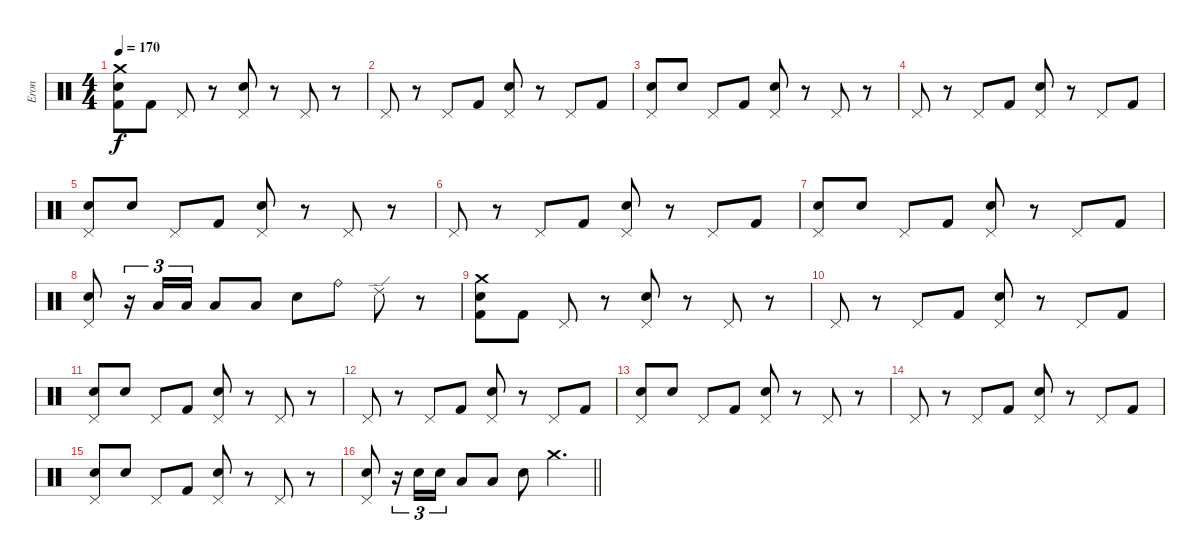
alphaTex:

\track ("Eron" "Eron") {instrument percussion}
\staff {score}
\articulation defaults
\ts (4 4)
\tempo 170
\clef neutral
\ks c
("Crash medium (hit)" "Snare (hit) 2" "Kick (hit) 2").8{dy f} "Kick (hit) 2".8 "Pedal Hi-Hat (hit)".8 r.8 ("Pedal Hi-Hat (hit)" "Snare (hit) 2").8 r.8 "Pedal Hi-Hat (hit)".8 r.8 |
"Pedal Hi-Hat (hit)".8 r.8 "Pedal Hi-Hat (hit)".8 "Kick (hit) 2".8 ("Pedal Hi-Hat (hit)" "Snare (hit) 2").8 r.8 "Pedal Hi-Hat (hit)".8 "Kick (hit) 2".8 |
("Pedal Hi-Hat (hit)" "Snare (hit) 2").8 "Snare (hit) 2".8 "Pedal Hi-Hat (hit)".8 "Kick (hit) 2".8 ("Pedal Hi-Hat (hit)" "Snare (hit) 2").8 r.8 "Pedal Hi-Hat (hit)".8 r.8 |
"Pedal Hi-Hat (hit)".8 r.8 "Pedal Hi-Hat (hit)".8 "Kick (hit) 2".8 ("Pedal Hi-Hat (hit)" "Snare (hit) 2").8 r.8 "Pedal Hi-Hat (hit)".8 "Kick (hit) 2".8 |
("Pedal Hi-Hat (hit)" "Snare (hit) 2").8 "Snare (hit) 2".8 "Pedal Hi-Hat (hit)".8 "Kick (hit) 2".8 ("Pedal Hi-Hat (hit)" "Snare (hit) 2").8 r.8 "Pedal Hi-Hat (hit)".8 r.8 |
"Pedal Hi-Hat (hit)".8 r.8 "Pedal Hi-Hat (hit)".8 "Kick (hit) 2".8 ("Pedal Hi-Hat (hit)" "Snare (hit) 2").8 r.8 "Pedal Hi-Hat (hit)".8 "Kick (hit) 2".8 |
("Pedal Hi-Hat (hit)" "Snare (hit) 2").8 "Snare (hit) 2".8 "Pedal Hi-Hat (hit)".8 "Kick (hit) 2".8 ("Pedal Hi-Hat (hit)" "Snare (hit) 2").8 r.8 "Pedal Hi-Hat (hit)".8 "Kick (hit) 2".8 |
("Pedal Hi-Hat (hit)" "Snare (hit) 2").8 r.16{tu (3 2)} "Low Tom (hit)".16{tu (3 2)} "Low Tom (hit)".16{tu (3 2)} "Low Floor Tom (hit)".8 "Low Floor Tom (hit)".8 "Snare (hit) 2".8 "Ride (bell)".8 "Ride (edge) 2".8 r.8 |
("Crash medium (hit)" "Snare (hit) 2" "Kick (hit) 2").8 "Kick (hit) 2".8 "Pedal Hi-Hat (hit)".8 r.8 ("Pedal Hi-Hat (hit)" "Snare (hit) 2").8 r.8 "Pedal Hi-Hat (hit)".8 r.8 |
"Pedal Hi-Hat (hit)".8 r.8 "Pedal Hi-Hat (hit)".8 "Kick (hit) 2".8 ("Pedal Hi-Hat (hit)" "Snare (hit) 2").8 r.8 "Pedal Hi-Hat (hit)".8 "Kick (hit) 2".8 |
("Pedal Hi-Hat (hit)" "Snare (hit) 2").8 "Snare (hit) 2".8 "Pedal Hi-Hat (hit)".8 "Kick (hit) 2".8 ("Pedal Hi-Hat (hit)" "Snare (hit) 2").8 r.8 "Pedal Hi-Hat (hit)".8 r.8 |
"Pedal Hi-Hat (hit)".8 r.8 "Pedal Hi-Hat (hit)".8 "Kick (hit) 2".8 ("Pedal Hi-Hat (hit)" "Snare (hit) 2").8 r.8 "Pedal Hi-Hat (hit)".8 "Kick (hit) 2".8 |
("Pedal Hi-Hat (hit)" "Snare (hit) 2").8 "Snare (hit) 2".8 "Pedal Hi-Hat (hit)".8 "Kick (hit) 2".8 ("Pedal Hi-Hat (hit)" "Snare (hit) 2").8 r.8 "Pedal Hi-Hat (hit)".8 r.8 |
"Pedal Hi-Hat (hit)".8 r.8 "Pedal Hi-Hat (hit)".8 "Kick (hit) 2".8 ("Pedal Hi-Hat (hit)" "Snare (hit) 2").8 r.8 "Pedal Hi-Hat (hit)".8 "Kick (hit) 2".8 |
("Pedal Hi-Hat (hit)" "Snare (hit) 2").8 "Snare (hit) 2".8 "Pedal Hi-Hat (hit)".8 "Kick (hit) 2".8 ("Pedal Hi-Hat (hit)" "Snare (hit) 2").8 r.8 "Pedal Hi-Hat (hit)".8 r.8 |
\barLineRight lightlight
("Pedal Hi-Hat (hit)" "Snare (hit) 2").8 r.16{tu (3 2)} "Snare (hit) 2".16{tu (3 2)} "Snare (hit) 2".16{tu (3 2)} "Low Tom (hit)".8 "Low Floor Tom (hit)".8 "Snare (hit) 2".8 "Crash medium (hit)".4{d}
